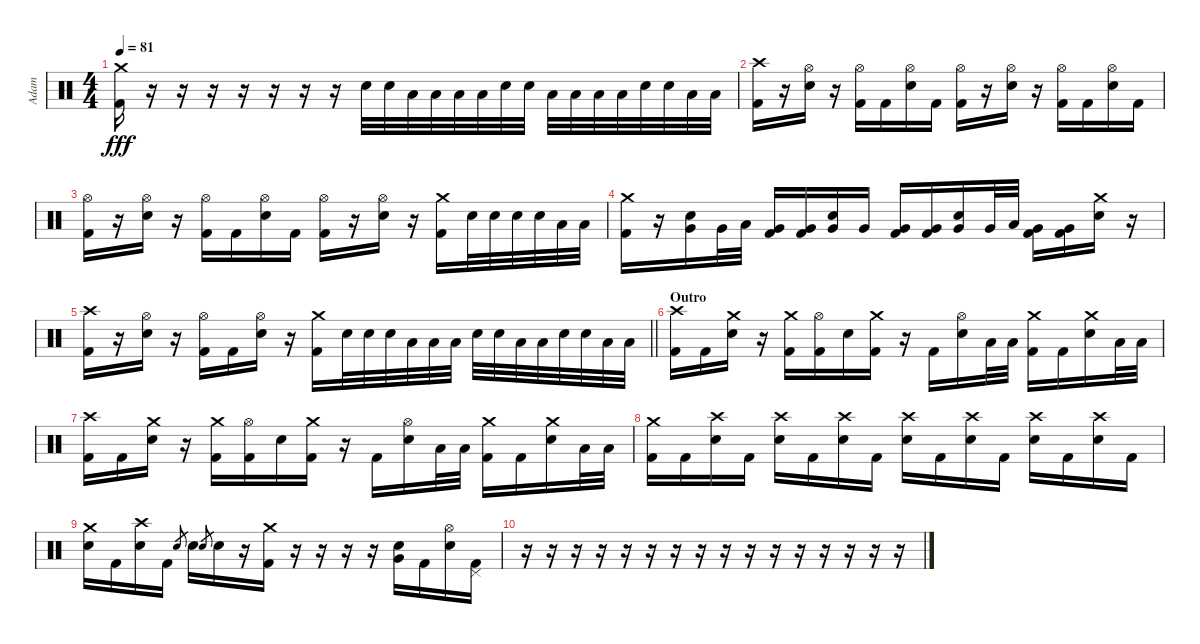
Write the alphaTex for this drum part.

\track ("Adam" "Adam") {instrument percussion}
\staff {score}
\articulation defaults
\ts (4 4)
\tempo 81
\clef neutral
\ks c
("Crash medium (hit)" "Kick (hit) 2").16{dy fff} r.16 r.16 r.16 r.16 r.16 r.16 r.16 "Electric Snare (hit)".32 "Electric Snare (hit)".32 "Low Tom (hit)".32 "Low Tom (hit)".32 "Low Tom (hit)".32 "Low Tom (hit)".32 "Electric Snare (hit)".32 "Electric Snare (hit)".32 "Low Tom (hit)".32 "Low Tom (hit)".32 "Low Tom (hit)".32 "Low Tom (hit)".32 "Electric Snare (hit)".32 "Electric Snare (hit)".32 "Low Tom (hit)".32 "Low Tom (hit)".32 |
("Crash high (hit)" "Kick (hit) 2").16 r.16 ("Hi-Hat (open)" "Electric Snare (hit)").16 r.16 ("Hi-Hat (open)" "Kick (hit) 2").16 "Kick (hit) 2".16 ("Hi-Hat (open)" "Electric Snare (hit)").16 "Kick (hit) 2".16 ("Hi-Hat (open)" "Kick (hit) 2").16 r.16 ("Hi-Hat (open)" "Electric Snare (hit)").16 r.16 ("Hi-Hat (open)" "Kick (hit) 2").16 "Kick (hit) 2".16 ("Hi-Hat (open)" "Electric Snare (hit)").16 "Kick (hit) 2".16 |
("Hi-Hat (open)" "Kick (hit) 2").16 r.16 ("Hi-Hat (open)" "Electric Snare (hit)").16 r.16 ("Hi-Hat (open)" "Kick (hit) 2").16 "Kick (hit) 2".16 ("Hi-Hat (open)" "Electric Snare (hit)").16 "Kick (hit) 2".16 ("Hi-Hat (open)" "Kick (hit) 2").16 r.16 ("Hi-Hat (open)" "Electric Snare (hit)").16 r.16 ("Crash medium (hit)" "Kick (hit) 2").16 "Electric Snare (hit)".32 "Electric Snare (hit)".32 "Electric Snare (hit)".32 "Electric Snare (hit)".32 "Low Tom (hit)".32 "Low Tom (hit)".32 |
("Crash medium (hit)" "Kick (hit) 2").16 r.16 ("Electric Snare (hit)" "Very Low Tom (hit)").16 "Very Low Tom (hit)".32 "Low Tom (hit)".32 ("Very Low Tom (hit)" "Kick (hit) 2").16 ("Very Low Tom (hit)" "Kick (hit) 2").16 ("Electric Snare (hit)" "Very Low Tom (hit)").16 "Very Low Tom (hit)".16 ("Very Low Tom (hit)" "Kick (hit) 2").16 ("Very Low Tom (hit)" "Kick (hit) 2").16 ("Electric Snare (hit)" "Very Low Tom (hit)").16 "Very Low Tom (hit)".32 "Low Tom (hit)".32 ("Very Low Tom (hit)" "Kick (hit) 2").16 ("Very Low Tom (hit)" "Kick (hit) 2").16 ("Crash medium (hit)" "Electric Snare (hit)").16 r.16 |
\barLineRight lightlight
("Crash high (hit)" "Kick (hit) 2").16 r.16 ("Hi-Hat (open)" "Electric Snare (hit)").16 r.16 ("Hi-Hat (open)" "Kick (hit) 2").16 "Kick (hit) 2".16 ("Hi-Hat (open)" "Electric Snare (hit)").16 r.16 ("Crash medium (hit)" "Kick (hit) 2").16 "Electric Snare (hit)".32 "Electric Snare (hit)".32 "Electric Snare (hit)".32 "Low Tom (hit)".32 "Low Tom (hit)".32 "Low Tom (hit)".32 "Electric Snare (hit)".32 "Electric Snare (hit)".32 "Low Tom (hit)".32 "Low Tom (hit)".32 "Electric Snare (hit)".32 "Electric Snare (hit)".32 "Low Tom (hit)".32 "Low Tom (hit)".32 |
\section ("" "Outro")
("Crash high (hit)" "Kick (hit) 2").16 "Kick (hit) 2".16 ("Crash medium (hit)" "Electric Snare (hit)").16 r.16 ("Crash medium (hit)" "Kick (hit) 2").16 ("Hi-Hat (open)" "Kick (hit) 2").16 "Electric Snare (hit)".16 ("Crash medium (hit)" "Kick (hit) 2").16 r.16 "Kick (hit) 2".16 ("Hi-Hat (open)" "Electric Snare (hit)").16 "Low Tom (hit)".32 "Low Tom (hit)".32 ("Crash medium (hit)" "Kick (hit) 2").16 "Kick (hit) 2".16 ("Crash medium (hit)" "Electric Snare (hit)").16 "Low Tom (hit)".32 "Low Tom (hit)".32 |
("Crash high (hit)" "Kick (hit) 2").16 "Kick (hit) 2".16 ("Crash medium (hit)" "Electric Snare (hit)").16 r.16 ("Crash medium (hit)" "Kick (hit) 2").16 ("Hi-Hat (open)" "Kick (hit) 2").16 "Electric Snare (hit)".16 ("Crash medium (hit)" "Kick (hit) 2").16 r.16 "Kick (hit) 2".16 ("Hi-Hat (open)" "Electric Snare (hit)").16 "Low Tom (hit)".32 "Low Tom (hit)".32 ("Crash medium (hit)" "Kick (hit) 2").16 "Kick (hit) 2".16 ("Crash medium (hit)" "Electric Snare (hit)").16 "Low Tom (hit)".32 "Low Tom (hit)".32 |
("Crash medium (hit)" "Kick (hit) 2").16 "Kick (hit) 2".16 ("Crash high (hit)" "Electric Snare (hit)").16 "Kick (hit) 2".16 ("Crash high (hit)" "Electric Snare (hit)").16 "Kick (hit) 2".16 ("Crash high (hit)" "Electric Snare (hit)").16 "Kick (hit) 2".16 ("Crash high (hit)" "Electric Snare (hit)").16 "Kick (hit) 2".16 ("Crash high (hit)" "Electric Snare (hit)").16 "Kick (hit) 2".16 ("Crash high (hit)" "Electric Snare (hit)").16 "Kick (hit) 2".16 ("Crash high (hit)" "Electric Snare (hit)").16 "Kick (hit) 2".16 |
("Crash medium (hit)" "Electric Snare (hit)").16 "Kick (hit) 2".16 ("Crash high (hit)" "Electric Snare (hit)").16 "Kick (hit) 2".16 "Electric Snare (hit)".8{gr} "Electric Snare (hit)".16 "Electric Snare (hit)".8{gr} "Electric Snare (hit)".16 r.16 ("Crash medium (hit)" "Kick (hit) 2").16 r.16 r.16 r.16 r.16 ("Electric Snare (hit)" "Very Low Tom (hit)").16 "Kick (hit) 2".16 ("Hi-Hat (open)" "Electric Snare (hit)").16 ("Pedal Hi-Hat (hit)" "Kick (hit) 2").16 |
r.16 r.16 r.16 r.16 r.16 r.16 r.16 r.16 r.16 r.16 r.16 r.16 r.16 r.16 r.16 r.16
